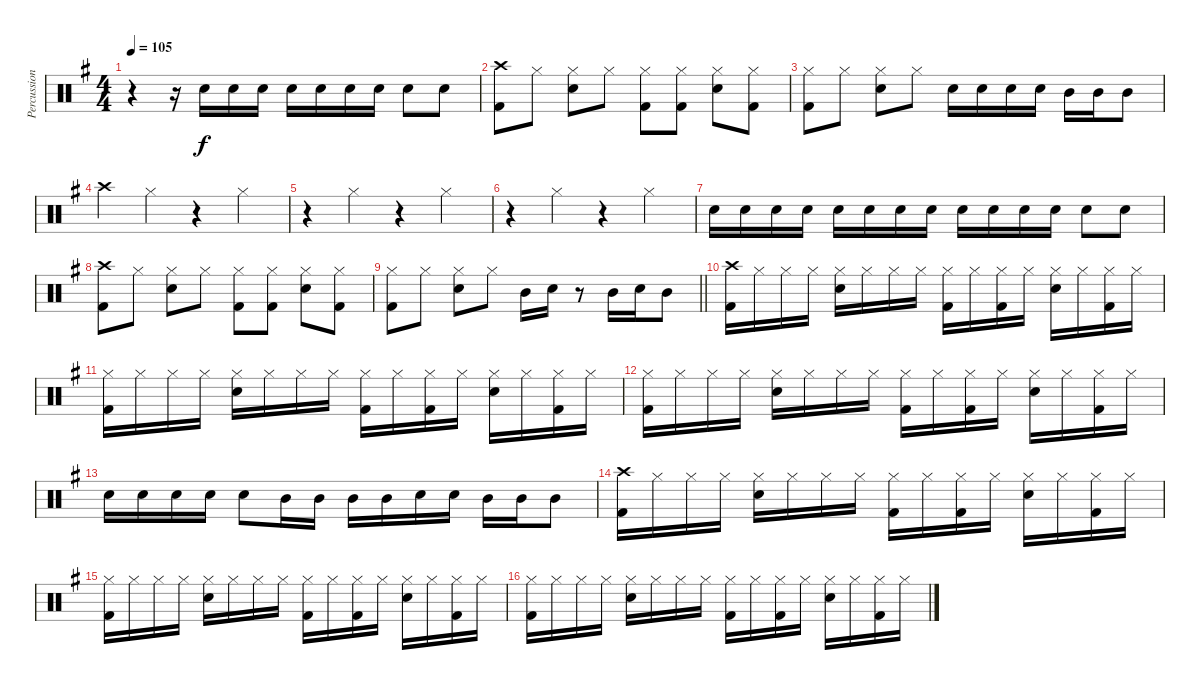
\track ("Percussion" "Percussion") {instrument percussion}
\staff {score}
\articulation defaults
\ts (4 4)
\tempo 105
\clef neutral
\ks g
r.4{dy f} r.16 "Snare (hit) 2".16 "Snare (hit) 2".16 "Snare (hit) 2".16 "Snare (hit) 2".16 "Snare (hit) 2".16 "Snare (hit) 2".16 "Snare (hit) 2".16 "Snare (hit) 2".8 "Snare (hit) 2".8 |
("Crash high (hit)" "Kick (hit) 2").8 "Hi-Hat (closed)".8 ("Hi-Hat (closed)" "Snare (hit) 2").8 "Hi-Hat (closed)".8 ("Hi-Hat (closed)" "Kick (hit) 2").8 ("Hi-Hat (closed)" "Kick (hit) 2").8 ("Hi-Hat (closed)" "Snare (hit) 2").8 ("Hi-Hat (closed)" "Kick (hit) 2").8 |
("Hi-Hat (closed)" "Kick (hit) 2").8 "Hi-Hat (closed)".8 ("Hi-Hat (closed)" "Snare (hit) 2").8 "Hi-Hat (closed)".8 "Snare (hit) 2".16 "Snare (hit) 2".16 "Snare (hit) 2".16 "Snare (hit) 2".16 "Mid Tom (hit)".16 "Mid Tom (hit)".16 "Mid Tom (hit)".8 |
"Crash high (hit)".4 "Hi-Hat (closed)".4 r.4 "Hi-Hat (closed)".4 |
r.4 "Hi-Hat (closed)".4 r.4 "Hi-Hat (closed)".4 |
r.4 "Hi-Hat (closed)".4 r.4 "Hi-Hat (closed)".4 |
"Snare (hit) 2".16 "Snare (hit) 2".16 "Snare (hit) 2".16 "Snare (hit) 2".16 "Snare (hit) 2".16 "Snare (hit) 2".16 "Snare (hit) 2".16 "Snare (hit) 2".16 "Snare (hit) 2".16 "Snare (hit) 2".16 "Snare (hit) 2".16 "Snare (hit) 2".16 "Snare (hit) 2".8 "Snare (hit) 2".8 |
("Crash high (hit)" "Kick (hit) 2").8 "Hi-Hat (closed)".8 ("Hi-Hat (closed)" "Snare (hit) 2").8 "Hi-Hat (closed)".8 ("Hi-Hat (closed)" "Kick (hit) 2").8 ("Hi-Hat (closed)" "Kick (hit) 2").8 ("Hi-Hat (closed)" "Snare (hit) 2").8 ("Hi-Hat (closed)" "Kick (hit) 2").8 |
\barLineRight lightlight
("Hi-Hat (closed)" "Kick (hit) 2").8 "Hi-Hat (closed)".8 ("Hi-Hat (closed)" "Snare (hit) 2").8 "Hi-Hat (closed)".8 "Mid Tom (hit)".16 "Snare (hit) 2".16 r.8 "Mid Tom (hit)".16 "Snare (hit) 2".16 "Mid Tom (hit)".8 |
("Crash high (hit)" "Kick (hit) 2").16 "Hi-Hat (closed)".16 "Hi-Hat (closed)".16 "Hi-Hat (closed)".16 ("Hi-Hat (closed)" "Snare (hit) 2").16 "Hi-Hat (closed)".16 "Hi-Hat (closed)".16 "Hi-Hat (closed)".16 ("Hi-Hat (closed)" "Kick (hit) 2").16 "Hi-Hat (closed)".16 ("Hi-Hat (closed)" "Kick (hit) 2").16 "Hi-Hat (closed)".16 ("Hi-Hat (closed)" "Snare (hit) 2").16 "Hi-Hat (closed)".16 ("Hi-Hat (closed)" "Kick (hit) 2").16 "Hi-Hat (closed)".16 |
("Hi-Hat (closed)" "Kick (hit) 2").16 "Hi-Hat (closed)".16 "Hi-Hat (closed)".16 "Hi-Hat (closed)".16 ("Hi-Hat (closed)" "Snare (hit) 2").16 "Hi-Hat (closed)".16 "Hi-Hat (closed)".16 "Hi-Hat (closed)".16 ("Hi-Hat (closed)" "Kick (hit) 2").16 "Hi-Hat (closed)".16 ("Hi-Hat (closed)" "Kick (hit) 2").16 "Hi-Hat (closed)".16 ("Hi-Hat (closed)" "Snare (hit) 2").16 "Hi-Hat (closed)".16 ("Hi-Hat (closed)" "Kick (hit) 2").16 "Hi-Hat (closed)".16 |
("Hi-Hat (closed)" "Kick (hit) 2").16 "Hi-Hat (closed)".16 "Hi-Hat (closed)".16 "Hi-Hat (closed)".16 ("Hi-Hat (closed)" "Snare (hit) 2").16 "Hi-Hat (closed)".16 "Hi-Hat (closed)".16 "Hi-Hat (closed)".16 ("Hi-Hat (closed)" "Kick (hit) 2").16 "Hi-Hat (closed)".16 ("Hi-Hat (closed)" "Kick (hit) 2").16 "Hi-Hat (closed)".16 ("Hi-Hat (closed)" "Snare (hit) 2").16 "Hi-Hat (closed)".16 ("Hi-Hat (closed)" "Kick (hit) 2").16 "Hi-Hat (closed)".16 |
"Snare (hit) 2".16 "Snare (hit) 2".16 "Snare (hit) 2".16 "Snare (hit) 2".16 "Snare (hit) 2".8 "Mid Tom (hit)".16 "Mid Tom (hit)".16 "Mid Tom (hit)".16 "Mid Tom (hit)".16 "Snare (hit) 2".16 "Snare (hit) 2".16 "Mid Tom (hit)".16 "Mid Tom (hit)".16 "Mid Tom (hit)".8 |
("Crash high (hit)" "Kick (hit) 2").16 "Hi-Hat (closed)".16 "Hi-Hat (closed)".16 "Hi-Hat (closed)".16 ("Hi-Hat (closed)" "Snare (hit) 2").16 "Hi-Hat (closed)".16 "Hi-Hat (closed)".16 "Hi-Hat (closed)".16 ("Hi-Hat (closed)" "Kick (hit) 2").16 "Hi-Hat (closed)".16 ("Hi-Hat (closed)" "Kick (hit) 2").16 "Hi-Hat (closed)".16 ("Hi-Hat (closed)" "Snare (hit) 2").16 "Hi-Hat (closed)".16 ("Hi-Hat (closed)" "Kick (hit) 2").16 "Hi-Hat (closed)".16 |
("Hi-Hat (closed)" "Kick (hit) 2").16 "Hi-Hat (closed)".16 "Hi-Hat (closed)".16 "Hi-Hat (closed)".16 ("Hi-Hat (closed)" "Snare (hit) 2").16 "Hi-Hat (closed)".16 "Hi-Hat (closed)".16 "Hi-Hat (closed)".16 ("Hi-Hat (closed)" "Kick (hit) 2").16 "Hi-Hat (closed)".16 ("Hi-Hat (closed)" "Kick (hit) 2").16 "Hi-Hat (closed)".16 ("Hi-Hat (closed)" "Snare (hit) 2").16 "Hi-Hat (closed)".16 ("Hi-Hat (closed)" "Kick (hit) 2").16 "Hi-Hat (closed)".16 |
("Hi-Hat (closed)" "Kick (hit) 2").16 "Hi-Hat (closed)".16 "Hi-Hat (closed)".16 "Hi-Hat (closed)".16 ("Hi-Hat (closed)" "Snare (hit) 2").16 "Hi-Hat (closed)".16 "Hi-Hat (closed)".16 "Hi-Hat (closed)".16 ("Hi-Hat (closed)" "Kick (hit) 2").16 "Hi-Hat (closed)".16 ("Hi-Hat (closed)" "Kick (hit) 2").16 "Hi-Hat (closed)".16 ("Hi-Hat (closed)" "Snare (hit) 2").16 "Hi-Hat (closed)".16 ("Hi-Hat (closed)" "Kick (hit) 2").16 "Hi-Hat (closed)".16
